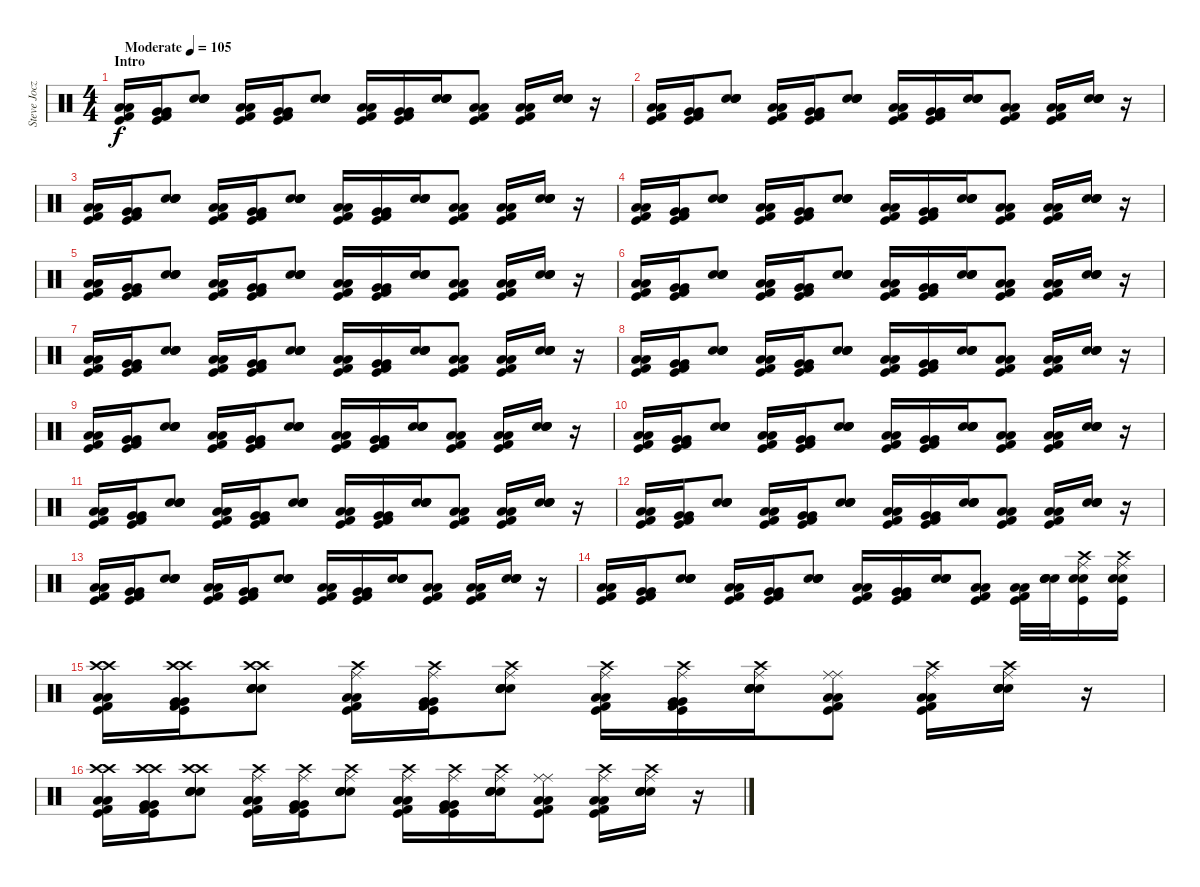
\track ("Steve Jocz" "Steve Jocz") {instrument percussion}
\staff {score}
\articulation defaults
\ts (4 4)
\section ("" "Intro")
\tempo (105 "Moderate")
\clef neutral
\ks c
("Low Floor Tom (hit)" "Low Floor Tom (hit)" "Kick (hit)" "Kick (hit) 2").16{dy f} ("Very Low Tom (hit)" "Very Low Tom (hit)" "Kick (hit)" "Kick (hit) 2").16 ("Snare (hit) 2" "Snare (hit) 2" "Electric Snare (hit)" "Electric Snare (hit)").8 ("Low Floor Tom (hit)" "Low Floor Tom (hit)" "Kick (hit)" "Kick (hit) 2").16 ("Very Low Tom (hit)" "Very Low Tom (hit)" "Kick (hit)" "Kick (hit) 2").16 ("Snare (hit) 2" "Snare (hit) 2" "Electric Snare (hit)" "Electric Snare (hit)").8 ("Low Floor Tom (hit)" "Low Floor Tom (hit)" "Kick (hit)" "Kick (hit) 2").16 ("Very Low Tom (hit)" "Very Low Tom (hit)" "Kick (hit)" "Kick (hit) 2").16 ("Snare (hit) 2" "Snare (hit) 2" "Electric Snare (hit)" "Electric Snare (hit)").16 ("Low Floor Tom (hit)" "Low Floor Tom (hit)" "Kick (hit)" "Kick (hit) 2").8 ("Low Floor Tom (hit)" "Low Floor Tom (hit)" "Kick (hit)" "Kick (hit) 2").16 ("Snare (hit) 2" "Snare (hit) 2" "Electric Snare (hit)" "Electric Snare (hit)").16 r.16 |
("Low Floor Tom (hit)" "Low Floor Tom (hit)" "Kick (hit)" "Kick (hit) 2").16 ("Very Low Tom (hit)" "Very Low Tom (hit)" "Kick (hit)" "Kick (hit) 2").16 ("Snare (hit) 2" "Snare (hit) 2" "Electric Snare (hit)" "Electric Snare (hit)").8 ("Low Floor Tom (hit)" "Low Floor Tom (hit)" "Kick (hit)" "Kick (hit) 2").16 ("Very Low Tom (hit)" "Very Low Tom (hit)" "Kick (hit)" "Kick (hit) 2").16 ("Snare (hit) 2" "Snare (hit) 2" "Electric Snare (hit)" "Electric Snare (hit)").8 ("Low Floor Tom (hit)" "Low Floor Tom (hit)" "Kick (hit)" "Kick (hit) 2").16 ("Very Low Tom (hit)" "Very Low Tom (hit)" "Kick (hit)" "Kick (hit) 2").16 ("Snare (hit) 2" "Snare (hit) 2" "Electric Snare (hit)" "Electric Snare (hit)").16 ("Low Floor Tom (hit)" "Low Floor Tom (hit)" "Kick (hit)" "Kick (hit) 2").8 ("Low Floor Tom (hit)" "Low Floor Tom (hit)" "Kick (hit)" "Kick (hit) 2").16 ("Snare (hit) 2" "Snare (hit) 2" "Electric Snare (hit)" "Electric Snare (hit)").16 r.16 |
("Low Floor Tom (hit)" "Low Floor Tom (hit)" "Kick (hit)" "Kick (hit) 2").16 ("Very Low Tom (hit)" "Very Low Tom (hit)" "Kick (hit)" "Kick (hit) 2").16 ("Snare (hit) 2" "Snare (hit) 2" "Electric Snare (hit)" "Electric Snare (hit)").8 ("Low Floor Tom (hit)" "Low Floor Tom (hit)" "Kick (hit)" "Kick (hit) 2").16 ("Very Low Tom (hit)" "Very Low Tom (hit)" "Kick (hit)" "Kick (hit) 2").16 ("Snare (hit) 2" "Snare (hit) 2" "Electric Snare (hit)" "Electric Snare (hit)").8 ("Low Floor Tom (hit)" "Low Floor Tom (hit)" "Kick (hit)" "Kick (hit) 2").16 ("Very Low Tom (hit)" "Very Low Tom (hit)" "Kick (hit)" "Kick (hit) 2").16 ("Snare (hit) 2" "Snare (hit) 2" "Electric Snare (hit)" "Electric Snare (hit)").16 ("Low Floor Tom (hit)" "Low Floor Tom (hit)" "Kick (hit)" "Kick (hit) 2").8 ("Low Floor Tom (hit)" "Low Floor Tom (hit)" "Kick (hit)" "Kick (hit) 2").16 ("Snare (hit) 2" "Snare (hit) 2" "Electric Snare (hit)" "Electric Snare (hit)").16 r.16 |
("Low Floor Tom (hit)" "Low Floor Tom (hit)" "Kick (hit)" "Kick (hit) 2").16 ("Very Low Tom (hit)" "Very Low Tom (hit)" "Kick (hit)" "Kick (hit) 2").16 ("Snare (hit) 2" "Snare (hit) 2" "Electric Snare (hit)" "Electric Snare (hit)").8 ("Low Floor Tom (hit)" "Low Floor Tom (hit)" "Kick (hit)" "Kick (hit) 2").16 ("Very Low Tom (hit)" "Very Low Tom (hit)" "Kick (hit)" "Kick (hit) 2").16 ("Snare (hit) 2" "Snare (hit) 2" "Electric Snare (hit)" "Electric Snare (hit)").8 ("Low Floor Tom (hit)" "Low Floor Tom (hit)" "Kick (hit)" "Kick (hit) 2").16 ("Very Low Tom (hit)" "Very Low Tom (hit)" "Kick (hit)" "Kick (hit) 2").16 ("Snare (hit) 2" "Snare (hit) 2" "Electric Snare (hit)" "Electric Snare (hit)").16 ("Low Floor Tom (hit)" "Low Floor Tom (hit)" "Kick (hit)" "Kick (hit) 2").8 ("Low Floor Tom (hit)" "Low Floor Tom (hit)" "Kick (hit)" "Kick (hit) 2").16 ("Snare (hit) 2" "Snare (hit) 2" "Electric Snare (hit)" "Electric Snare (hit)").16 r.16 |
("Low Floor Tom (hit)" "Low Floor Tom (hit)" "Kick (hit)" "Kick (hit) 2").16 ("Very Low Tom (hit)" "Very Low Tom (hit)" "Kick (hit)" "Kick (hit) 2").16 ("Snare (hit) 2" "Snare (hit) 2" "Electric Snare (hit)" "Electric Snare (hit)").8 ("Low Floor Tom (hit)" "Low Floor Tom (hit)" "Kick (hit)" "Kick (hit) 2").16 ("Very Low Tom (hit)" "Very Low Tom (hit)" "Kick (hit)" "Kick (hit) 2").16 ("Snare (hit) 2" "Snare (hit) 2" "Electric Snare (hit)" "Electric Snare (hit)").8 ("Low Floor Tom (hit)" "Low Floor Tom (hit)" "Kick (hit)" "Kick (hit) 2").16 ("Very Low Tom (hit)" "Very Low Tom (hit)" "Kick (hit)" "Kick (hit) 2").16 ("Snare (hit) 2" "Snare (hit) 2" "Electric Snare (hit)" "Electric Snare (hit)").16 ("Low Floor Tom (hit)" "Low Floor Tom (hit)" "Kick (hit)" "Kick (hit) 2").8 ("Low Floor Tom (hit)" "Low Floor Tom (hit)" "Kick (hit)" "Kick (hit) 2").16 ("Snare (hit) 2" "Snare (hit) 2" "Electric Snare (hit)" "Electric Snare (hit)").16 r.16 |
("Low Floor Tom (hit)" "Low Floor Tom (hit)" "Kick (hit)" "Kick (hit) 2").16 ("Very Low Tom (hit)" "Very Low Tom (hit)" "Kick (hit)" "Kick (hit) 2").16 ("Snare (hit) 2" "Snare (hit) 2" "Electric Snare (hit)" "Electric Snare (hit)").8 ("Low Floor Tom (hit)" "Low Floor Tom (hit)" "Kick (hit)" "Kick (hit) 2").16 ("Very Low Tom (hit)" "Very Low Tom (hit)" "Kick (hit)" "Kick (hit) 2").16 ("Snare (hit) 2" "Snare (hit) 2" "Electric Snare (hit)" "Electric Snare (hit)").8 ("Low Floor Tom (hit)" "Low Floor Tom (hit)" "Kick (hit)" "Kick (hit) 2").16 ("Very Low Tom (hit)" "Very Low Tom (hit)" "Kick (hit)" "Kick (hit) 2").16 ("Snare (hit) 2" "Snare (hit) 2" "Electric Snare (hit)" "Electric Snare (hit)").16 ("Low Floor Tom (hit)" "Low Floor Tom (hit)" "Kick (hit)" "Kick (hit) 2").8 ("Low Floor Tom (hit)" "Low Floor Tom (hit)" "Kick (hit)" "Kick (hit) 2").16 ("Snare (hit) 2" "Snare (hit) 2" "Electric Snare (hit)" "Electric Snare (hit)").16 r.16 |
("Low Floor Tom (hit)" "Low Floor Tom (hit)" "Kick (hit)" "Kick (hit) 2").16 ("Very Low Tom (hit)" "Very Low Tom (hit)" "Kick (hit)" "Kick (hit) 2").16 ("Snare (hit) 2" "Snare (hit) 2" "Electric Snare (hit)" "Electric Snare (hit)").8 ("Low Floor Tom (hit)" "Low Floor Tom (hit)" "Kick (hit)" "Kick (hit) 2").16 ("Very Low Tom (hit)" "Very Low Tom (hit)" "Kick (hit)" "Kick (hit) 2").16 ("Snare (hit) 2" "Snare (hit) 2" "Electric Snare (hit)" "Electric Snare (hit)").8 ("Low Floor Tom (hit)" "Low Floor Tom (hit)" "Kick (hit)" "Kick (hit) 2").16 ("Very Low Tom (hit)" "Very Low Tom (hit)" "Kick (hit)" "Kick (hit) 2").16 ("Snare (hit) 2" "Snare (hit) 2" "Electric Snare (hit)" "Electric Snare (hit)").16 ("Low Floor Tom (hit)" "Low Floor Tom (hit)" "Kick (hit)" "Kick (hit) 2").8 ("Low Floor Tom (hit)" "Low Floor Tom (hit)" "Kick (hit)" "Kick (hit) 2").16 ("Snare (hit) 2" "Snare (hit) 2" "Electric Snare (hit)" "Electric Snare (hit)").16 r.16 |
("Low Floor Tom (hit)" "Low Floor Tom (hit)" "Kick (hit)" "Kick (hit) 2").16 ("Very Low Tom (hit)" "Very Low Tom (hit)" "Kick (hit)" "Kick (hit) 2").16 ("Snare (hit) 2" "Snare (hit) 2" "Electric Snare (hit)" "Electric Snare (hit)").8 ("Low Floor Tom (hit)" "Low Floor Tom (hit)" "Kick (hit)" "Kick (hit) 2").16 ("Very Low Tom (hit)" "Very Low Tom (hit)" "Kick (hit)" "Kick (hit) 2").16 ("Snare (hit) 2" "Snare (hit) 2" "Electric Snare (hit)" "Electric Snare (hit)").8 ("Low Floor Tom (hit)" "Low Floor Tom (hit)" "Kick (hit)" "Kick (hit) 2").16 ("Very Low Tom (hit)" "Very Low Tom (hit)" "Kick (hit)" "Kick (hit) 2").16 ("Snare (hit) 2" "Snare (hit) 2" "Electric Snare (hit)" "Electric Snare (hit)").16 ("Low Floor Tom (hit)" "Low Floor Tom (hit)" "Kick (hit)" "Kick (hit) 2").8 ("Low Floor Tom (hit)" "Low Floor Tom (hit)" "Kick (hit)" "Kick (hit) 2").16 ("Snare (hit) 2" "Snare (hit) 2" "Electric Snare (hit)" "Electric Snare (hit)").16 r.16 |
("Low Floor Tom (hit)" "Low Floor Tom (hit)" "Kick (hit)" "Kick (hit) 2").16 ("Very Low Tom (hit)" "Very Low Tom (hit)" "Kick (hit)" "Kick (hit) 2").16 ("Snare (hit) 2" "Snare (hit) 2" "Electric Snare (hit)" "Electric Snare (hit)").8 ("Low Floor Tom (hit)" "Low Floor Tom (hit)" "Kick (hit)" "Kick (hit) 2").16 ("Very Low Tom (hit)" "Very Low Tom (hit)" "Kick (hit)" "Kick (hit) 2").16 ("Snare (hit) 2" "Snare (hit) 2" "Electric Snare (hit)" "Electric Snare (hit)").8 ("Low Floor Tom (hit)" "Low Floor Tom (hit)" "Kick (hit)" "Kick (hit) 2").16 ("Very Low Tom (hit)" "Very Low Tom (hit)" "Kick (hit)" "Kick (hit) 2").16 ("Snare (hit) 2" "Snare (hit) 2" "Electric Snare (hit)" "Electric Snare (hit)").16 ("Low Floor Tom (hit)" "Low Floor Tom (hit)" "Kick (hit)" "Kick (hit) 2").8 ("Low Floor Tom (hit)" "Low Floor Tom (hit)" "Kick (hit)" "Kick (hit) 2").16 ("Snare (hit) 2" "Snare (hit) 2" "Electric Snare (hit)" "Electric Snare (hit)").16 r.16 |
("Low Floor Tom (hit)" "Low Floor Tom (hit)" "Kick (hit)" "Kick (hit) 2").16 ("Very Low Tom (hit)" "Very Low Tom (hit)" "Kick (hit)" "Kick (hit) 2").16 ("Snare (hit) 2" "Snare (hit) 2" "Electric Snare (hit)" "Electric Snare (hit)").8 ("Low Floor Tom (hit)" "Low Floor Tom (hit)" "Kick (hit)" "Kick (hit) 2").16 ("Very Low Tom (hit)" "Very Low Tom (hit)" "Kick (hit)" "Kick (hit) 2").16 ("Snare (hit) 2" "Snare (hit) 2" "Electric Snare (hit)" "Electric Snare (hit)").8 ("Low Floor Tom (hit)" "Low Floor Tom (hit)" "Kick (hit)" "Kick (hit) 2").16 ("Very Low Tom (hit)" "Very Low Tom (hit)" "Kick (hit)" "Kick (hit) 2").16 ("Snare (hit) 2" "Snare (hit) 2" "Electric Snare (hit)" "Electric Snare (hit)").16 ("Low Floor Tom (hit)" "Low Floor Tom (hit)" "Kick (hit)" "Kick (hit) 2").8 ("Low Floor Tom (hit)" "Low Floor Tom (hit)" "Kick (hit)" "Kick (hit) 2").16 ("Snare (hit) 2" "Snare (hit) 2" "Electric Snare (hit)" "Electric Snare (hit)").16 r.16 |
("Low Floor Tom (hit)" "Low Floor Tom (hit)" "Kick (hit)" "Kick (hit) 2").16 ("Very Low Tom (hit)" "Very Low Tom (hit)" "Kick (hit)" "Kick (hit) 2").16 ("Snare (hit) 2" "Snare (hit) 2" "Electric Snare (hit)" "Electric Snare (hit)").8 ("Low Floor Tom (hit)" "Low Floor Tom (hit)" "Kick (hit)" "Kick (hit) 2").16 ("Very Low Tom (hit)" "Very Low Tom (hit)" "Kick (hit)" "Kick (hit) 2").16 ("Snare (hit) 2" "Snare (hit) 2" "Electric Snare (hit)" "Electric Snare (hit)").8 ("Low Floor Tom (hit)" "Low Floor Tom (hit)" "Kick (hit)" "Kick (hit) 2").16 ("Very Low Tom (hit)" "Very Low Tom (hit)" "Kick (hit)" "Kick (hit) 2").16 ("Snare (hit) 2" "Snare (hit) 2" "Electric Snare (hit)" "Electric Snare (hit)").16 ("Low Floor Tom (hit)" "Low Floor Tom (hit)" "Kick (hit)" "Kick (hit) 2").8 ("Low Floor Tom (hit)" "Low Floor Tom (hit)" "Kick (hit)" "Kick (hit) 2").16 ("Snare (hit) 2" "Snare (hit) 2" "Electric Snare (hit)" "Electric Snare (hit)").16 r.16 |
("Low Floor Tom (hit)" "Low Floor Tom (hit)" "Kick (hit)" "Kick (hit) 2").16 ("Very Low Tom (hit)" "Very Low Tom (hit)" "Kick (hit)" "Kick (hit) 2").16 ("Snare (hit) 2" "Snare (hit) 2" "Electric Snare (hit)" "Electric Snare (hit)").8 ("Low Floor Tom (hit)" "Low Floor Tom (hit)" "Kick (hit)" "Kick (hit) 2").16 ("Very Low Tom (hit)" "Very Low Tom (hit)" "Kick (hit)" "Kick (hit) 2").16 ("Snare (hit) 2" "Snare (hit) 2" "Electric Snare (hit)" "Electric Snare (hit)").8 ("Low Floor Tom (hit)" "Low Floor Tom (hit)" "Kick (hit)" "Kick (hit) 2").16 ("Very Low Tom (hit)" "Very Low Tom (hit)" "Kick (hit)" "Kick (hit) 2").16 ("Snare (hit) 2" "Snare (hit) 2" "Electric Snare (hit)" "Electric Snare (hit)").16 ("Low Floor Tom (hit)" "Low Floor Tom (hit)" "Kick (hit)" "Kick (hit) 2").8 ("Low Floor Tom (hit)" "Low Floor Tom (hit)" "Kick (hit)" "Kick (hit) 2").16 ("Snare (hit) 2" "Snare (hit) 2" "Electric Snare (hit)" "Electric Snare (hit)").16 r.16 |
("Low Floor Tom (hit)" "Low Floor Tom (hit)" "Kick (hit)" "Kick (hit) 2").16 ("Very Low Tom (hit)" "Very Low Tom (hit)" "Kick (hit)" "Kick (hit) 2").16 ("Snare (hit) 2" "Snare (hit) 2" "Electric Snare (hit)" "Electric Snare (hit)").8 ("Low Floor Tom (hit)" "Low Floor Tom (hit)" "Kick (hit)" "Kick (hit) 2").16 ("Very Low Tom (hit)" "Very Low Tom (hit)" "Kick (hit)" "Kick (hit) 2").16 ("Snare (hit) 2" "Snare (hit) 2" "Electric Snare (hit)" "Electric Snare (hit)").8 ("Low Floor Tom (hit)" "Low Floor Tom (hit)" "Kick (hit)" "Kick (hit) 2").16 ("Very Low Tom (hit)" "Very Low Tom (hit)" "Kick (hit)" "Kick (hit) 2").16 ("Snare (hit) 2" "Snare (hit) 2" "Electric Snare (hit)" "Electric Snare (hit)").16 ("Low Floor Tom (hit)" "Low Floor Tom (hit)" "Kick (hit)" "Kick (hit) 2").8 ("Low Floor Tom (hit)" "Low Floor Tom (hit)" "Kick (hit)" "Kick (hit) 2").16 ("Snare (hit) 2" "Snare (hit) 2" "Electric Snare (hit)" "Electric Snare (hit)").16 r.16 |
("Low Floor Tom (hit)" "Low Floor Tom (hit)" "Kick (hit)" "Kick (hit) 2").16 ("Very Low Tom (hit)" "Very Low Tom (hit)" "Kick (hit)" "Kick (hit) 2").16 ("Snare (hit) 2" "Snare (hit) 2" "Electric Snare (hit)" "Electric Snare (hit)").8 ("Low Floor Tom (hit)" "Low Floor Tom (hit)" "Kick (hit)" "Kick (hit) 2").16 ("Very Low Tom (hit)" "Very Low Tom (hit)" "Kick (hit)" "Kick (hit) 2").16 ("Snare (hit) 2" "Snare (hit) 2" "Electric Snare (hit)" "Electric Snare (hit)").8 ("Low Floor Tom (hit)" "Low Floor Tom (hit)" "Kick (hit)" "Kick (hit) 2").16 ("Very Low Tom (hit)" "Very Low Tom (hit)" "Kick (hit)" "Kick (hit) 2").16 ("Snare (hit) 2" "Snare (hit) 2" "Electric Snare (hit)" "Electric Snare (hit)").16 ("Low Floor Tom (hit)" "Low Floor Tom (hit)" "Kick (hit)" "Kick (hit) 2").8 ("Low Floor Tom (hit)" "Low Floor Tom (hit)" "Kick (hit)" "Kick (hit) 2").32 ("Snare (hit) 2" "Snare (hit) 2" "Electric Snare (hit)" "Electric Snare (hit)").32 ("Snare (hit) 2" "Kick (hit)" "Electric Snare (hit)" "Crash high (hit)" "Ride (middle)").16 ("Snare (hit) 2" "Kick (hit)" "Electric Snare (hit)" "Crash high (hit)" "Ride (middle)").16 |
("Low Floor Tom (hit)" "Crash high (hit)" "Low Floor Tom (hit)" "Kick (hit)" "Crash high (hit)" "Kick (hit) 2").16 ("Very Low Tom (hit)" "Crash high (hit)" "Very Low Tom (hit)" "Kick (hit)" "Crash high (hit)" "Kick (hit) 2").16 ("Snare (hit) 2" "Crash high (hit)" "Snare (hit) 2" "Electric Snare (hit)" "Crash high (hit)" "Electric Snare (hit)").8 ("Low Floor Tom (hit)" "Ride (middle)" "Low Floor Tom (hit)" "Kick (hit)" "Crash high (hit)" "Kick (hit) 2").16 ("Very Low Tom (hit)" "Ride (middle)" "Very Low Tom (hit)" "Kick (hit)" "Crash high (hit)" "Kick (hit) 2").16 ("Snare (hit) 2" "Ride (middle)" "Snare (hit) 2" "Electric Snare (hit)" "Crash high (hit)" "Electric Snare (hit)").8 ("Low Floor Tom (hit)" "Ride (middle)" "Low Floor Tom (hit)" "Kick (hit)" "Crash high (hit)" "Kick (hit) 2").16 ("Very Low Tom (hit)" "Ride (middle)" "Very Low Tom (hit)" "Kick (hit)" "Crash high (hit)" "Kick (hit) 2").16 ("Snare (hit) 2" "Ride (middle)" "Snare (hit) 2" "Electric Snare (hit)" "Crash high (hit)" "Electric Snare (hit)").16 ("Low Floor Tom (hit)" "Ride (middle)" "Low Floor Tom (hit)" "Kick (hit)" "Ride (middle)" "Kick (hit) 2").8 ("Low Floor Tom (hit)" "Ride (middle)" "Low Floor Tom (hit)" "Kick (hit)" "Crash high (hit)" "Kick (hit) 2").16 ("Snare (hit) 2" "Ride (middle)" "Snare (hit) 2" "Electric Snare (hit)" "Crash high (hit)" "Electric Snare (hit)").16 r.16 |
("Low Floor Tom (hit)" "Crash high (hit)" "Low Floor Tom (hit)" "Kick (hit)" "Crash high (hit)" "Kick (hit) 2").16 ("Very Low Tom (hit)" "Crash high (hit)" "Very Low Tom (hit)" "Kick (hit)" "Crash high (hit)" "Kick (hit) 2").16 ("Snare (hit) 2" "Crash high (hit)" "Snare (hit) 2" "Electric Snare (hit)" "Crash high (hit)" "Electric Snare (hit)").8 ("Low Floor Tom (hit)" "Ride (middle)" "Low Floor Tom (hit)" "Kick (hit)" "Crash high (hit)" "Kick (hit) 2").16 ("Very Low Tom (hit)" "Ride (middle)" "Very Low Tom (hit)" "Kick (hit)" "Crash high (hit)" "Kick (hit) 2").16 ("Snare (hit) 2" "Ride (middle)" "Snare (hit) 2" "Electric Snare (hit)" "Crash high (hit)" "Electric Snare (hit)").8 ("Low Floor Tom (hit)" "Ride (middle)" "Low Floor Tom (hit)" "Kick (hit)" "Crash high (hit)" "Kick (hit) 2").16 ("Very Low Tom (hit)" "Ride (middle)" "Very Low Tom (hit)" "Kick (hit)" "Crash high (hit)" "Kick (hit) 2").16 ("Snare (hit) 2" "Ride (middle)" "Snare (hit) 2" "Electric Snare (hit)" "Crash high (hit)" "Electric Snare (hit)").16 ("Low Floor Tom (hit)" "Ride (middle)" "Low Floor Tom (hit)" "Kick (hit)" "Ride (middle)" "Kick (hit) 2").8 ("Low Floor Tom (hit)" "Ride (middle)" "Low Floor Tom (hit)" "Kick (hit)" "Crash high (hit)" "Kick (hit) 2").16 ("Snare (hit) 2" "Ride (middle)" "Snare (hit) 2" "Electric Snare (hit)" "Crash high (hit)" "Electric Snare (hit)").16 r.16
